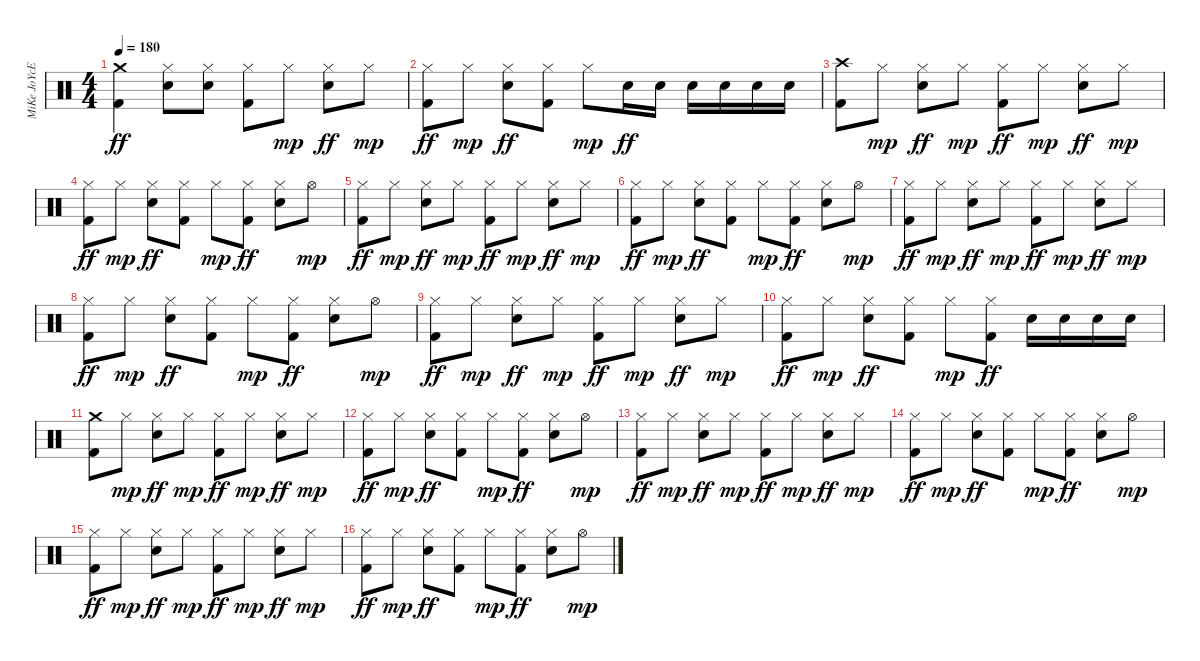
\track ("MiKe JoYcE" "MiKe JoYcE") {instrument percussion}
\staff {score}
\articulation defaults
\ts (4 4)
\tempo 180
\clef neutral
\ks c
("Crash medium (hit)" "Kick (hit) 2").4{dy ff} ("Hi-Hat (closed)" "Electric Snare (hit)").8 ("Hi-Hat (closed)" "Electric Snare (hit)").8 ("Hi-Hat (closed)" "Kick (hit) 2").8 "Hi-Hat (closed)".8{dy mp} ("Hi-Hat (closed)" "Electric Snare (hit)").8{dy ff} "Hi-Hat (closed)".8{dy mp} |
("Hi-Hat (closed)" "Kick (hit) 2").8{dy ff} "Hi-Hat (closed)".8{dy mp} ("Hi-Hat (closed)" "Electric Snare (hit)").8{dy ff} ("Hi-Hat (closed)" "Kick (hit) 2").8 "Hi-Hat (closed)".8{dy mp} "Electric Snare (hit)".16{dy ff} "Electric Snare (hit)".16 "Electric Snare (hit)".16 "Electric Snare (hit)".16 "Electric Snare (hit)".16 "Electric Snare (hit)".16 |
("Crash high (hit)" "Kick (hit) 2").8 "Hi-Hat (closed)".8{dy mp} ("Hi-Hat (closed)" "Electric Snare (hit)").8{dy ff} "Hi-Hat (closed)".8{dy mp} ("Hi-Hat (closed)" "Kick (hit) 2").8{dy ff} "Hi-Hat (closed)".8{dy mp} ("Hi-Hat (closed)" "Electric Snare (hit)").8{dy ff} "Hi-Hat (closed)".8{dy mp} |
("Hi-Hat (closed)" "Kick (hit) 2").8{dy ff} "Hi-Hat (closed)".8{dy mp} ("Hi-Hat (closed)" "Electric Snare (hit)").8{dy ff} ("Hi-Hat (closed)" "Kick (hit) 2").8 "Hi-Hat (closed)".8{dy mp} ("Hi-Hat (closed)" "Kick (hit) 2").8{dy ff} ("Hi-Hat (closed)" "Electric Snare (hit)").8 "Hi-Hat (open)".8{dy mp} |
("Hi-Hat (closed)" "Kick (hit) 2").8{dy ff} "Hi-Hat (closed)".8{dy mp} ("Hi-Hat (closed)" "Electric Snare (hit)").8{dy ff} "Hi-Hat (closed)".8{dy mp} ("Hi-Hat (closed)" "Kick (hit) 2").8{dy ff} "Hi-Hat (closed)".8{dy mp} ("Hi-Hat (closed)" "Electric Snare (hit)").8{dy ff} "Hi-Hat (closed)".8{dy mp} |
("Hi-Hat (closed)" "Kick (hit) 2").8{dy ff} "Hi-Hat (closed)".8{dy mp} ("Hi-Hat (closed)" "Electric Snare (hit)").8{dy ff} ("Hi-Hat (closed)" "Kick (hit) 2").8 "Hi-Hat (closed)".8{dy mp} ("Hi-Hat (closed)" "Kick (hit) 2").8{dy ff} ("Hi-Hat (closed)" "Electric Snare (hit)").8 "Hi-Hat (open)".8{dy mp} |
("Hi-Hat (closed)" "Kick (hit) 2").8{dy ff} "Hi-Hat (closed)".8{dy mp} ("Hi-Hat (closed)" "Electric Snare (hit)").8{dy ff} "Hi-Hat (closed)".8{dy mp} ("Hi-Hat (closed)" "Kick (hit) 2").8{dy ff} "Hi-Hat (closed)".8{dy mp} ("Hi-Hat (closed)" "Electric Snare (hit)").8{dy ff} "Hi-Hat (closed)".8{dy mp} |
("Hi-Hat (closed)" "Kick (hit) 2").8{dy ff} "Hi-Hat (closed)".8{dy mp} ("Hi-Hat (closed)" "Electric Snare (hit)").8{dy ff} ("Hi-Hat (closed)" "Kick (hit) 2").8 "Hi-Hat (closed)".8{dy mp} ("Hi-Hat (closed)" "Kick (hit) 2").8{dy ff} ("Hi-Hat (closed)" "Electric Snare (hit)").8 "Hi-Hat (open)".8{dy mp} |
("Hi-Hat (closed)" "Kick (hit) 2").8{dy ff} "Hi-Hat (closed)".8{dy mp} ("Hi-Hat (closed)" "Electric Snare (hit)").8{dy ff} "Hi-Hat (closed)".8{dy mp} ("Hi-Hat (closed)" "Kick (hit) 2").8{dy ff} "Hi-Hat (closed)".8{dy mp} ("Hi-Hat (closed)" "Electric Snare (hit)").8{dy ff} "Hi-Hat (closed)".8{dy mp} |
("Hi-Hat (closed)" "Kick (hit) 2").8{dy ff} "Hi-Hat (closed)".8{dy mp} ("Hi-Hat (closed)" "Electric Snare (hit)").8{dy ff} ("Hi-Hat (closed)" "Kick (hit) 2").8 "Hi-Hat (closed)".8{dy mp} ("Hi-Hat (closed)" "Kick (hit) 2").8{dy ff} "Electric Snare (hit)".16 "Electric Snare (hit)".16 "Electric Snare (hit)".16 "Electric Snare (hit)".16 |
("Crash medium (hit)" "Kick (hit) 2").8 "Hi-Hat (closed)".8{dy mp} ("Hi-Hat (closed)" "Electric Snare (hit)").8{dy ff} "Hi-Hat (closed)".8{dy mp} ("Hi-Hat (closed)" "Kick (hit) 2").8{dy ff} "Hi-Hat (closed)".8{dy mp} ("Hi-Hat (closed)" "Electric Snare (hit)").8{dy ff} "Hi-Hat (closed)".8{dy mp} |
("Hi-Hat (closed)" "Kick (hit) 2").8{dy ff} "Hi-Hat (closed)".8{dy mp} ("Hi-Hat (closed)" "Electric Snare (hit)").8{dy ff} ("Hi-Hat (closed)" "Kick (hit) 2").8 "Hi-Hat (closed)".8{dy mp} ("Hi-Hat (closed)" "Kick (hit) 2").8{dy ff} ("Hi-Hat (closed)" "Electric Snare (hit)").8 "Hi-Hat (open)".8{dy mp} |
("Hi-Hat (closed)" "Kick (hit) 2").8{dy ff} "Hi-Hat (closed)".8{dy mp} ("Hi-Hat (closed)" "Electric Snare (hit)").8{dy ff} "Hi-Hat (closed)".8{dy mp} ("Hi-Hat (closed)" "Kick (hit) 2").8{dy ff} "Hi-Hat (closed)".8{dy mp} ("Hi-Hat (closed)" "Electric Snare (hit)").8{dy ff} "Hi-Hat (closed)".8{dy mp} |
("Hi-Hat (closed)" "Kick (hit) 2").8{dy ff} "Hi-Hat (closed)".8{dy mp} ("Hi-Hat (closed)" "Electric Snare (hit)").8{dy ff} ("Hi-Hat (closed)" "Kick (hit) 2").8 "Hi-Hat (closed)".8{dy mp} ("Hi-Hat (closed)" "Kick (hit) 2").8{dy ff} ("Hi-Hat (closed)" "Electric Snare (hit)").8 "Hi-Hat (open)".8{dy mp} |
("Hi-Hat (closed)" "Kick (hit) 2").8{dy ff} "Hi-Hat (closed)".8{dy mp} ("Hi-Hat (closed)" "Electric Snare (hit)").8{dy ff} "Hi-Hat (closed)".8{dy mp} ("Hi-Hat (closed)" "Kick (hit) 2").8{dy ff} "Hi-Hat (closed)".8{dy mp} ("Hi-Hat (closed)" "Electric Snare (hit)").8{dy ff} "Hi-Hat (closed)".8{dy mp} |
("Hi-Hat (closed)" "Kick (hit) 2").8{dy ff} "Hi-Hat (closed)".8{dy mp} ("Hi-Hat (closed)" "Electric Snare (hit)").8{dy ff} ("Hi-Hat (closed)" "Kick (hit) 2").8 "Hi-Hat (closed)".8{dy mp} ("Hi-Hat (closed)" "Kick (hit) 2").8{dy ff} ("Hi-Hat (closed)" "Electric Snare (hit)").8 "Hi-Hat (open)".8{dy mp}
